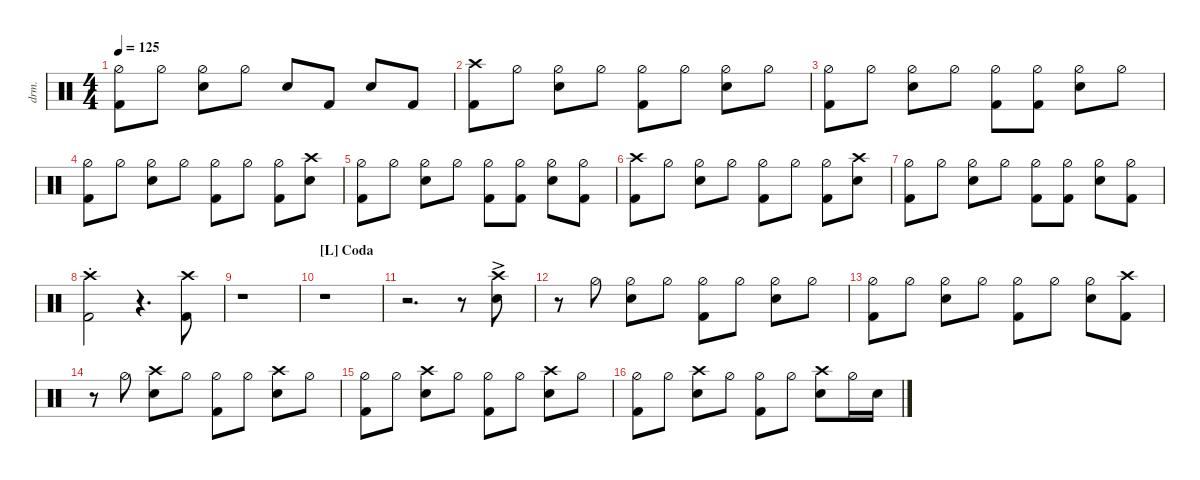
\defaultSystemsLayout 4
\hideDynamics
\bracketExtendMode nobrackets
\otherSystemsTrackNameOrientation horizontal
\track ("Drums" "drm.") {defaultSystemsLayout 4 multiBarRest instrument percussion}
\staff
\articulation defaults
\ts (4 4)
\tempo 125
\clef neutral
\ks c
("Hi-Hat (half)" "Kick (hit) 2").8{dy f} "Hi-Hat (half)".8 ("Hi-Hat (half)" "Snare (hit) 2").8 "Hi-Hat (half)".8 "Snare (hit) 2".8 "Kick (hit) 2".8 "Snare (hit) 2".8 "Kick (hit) 2".8 |
("Kick (hit) 2" "Crash high (hit)").8 "Hi-Hat (half)".8 ("Hi-Hat (half)" "Snare (hit) 2").8 "Hi-Hat (half)".8 ("Hi-Hat (half)" "Kick (hit) 2").8 "Hi-Hat (half)".8 ("Hi-Hat (half)" "Snare (hit) 2").8 "Hi-Hat (half)".8 |
("Hi-Hat (half)" "Kick (hit) 2").8 "Hi-Hat (half)".8 ("Hi-Hat (half)" "Snare (hit) 2").8 "Hi-Hat (half)".8 ("Hi-Hat (half)" "Kick (hit) 2").8 ("Hi-Hat (half)" "Kick (hit) 2").8 ("Hi-Hat (half)" "Snare (hit) 2").8 "Hi-Hat (half)".8 |
("Hi-Hat (half)" "Kick (hit) 2").8 "Hi-Hat (half)".8 ("Hi-Hat (half)" "Snare (hit) 2").8 "Hi-Hat (half)".8 ("Hi-Hat (half)" "Kick (hit) 2").8 "Hi-Hat (half)".8 ("Hi-Hat (half)" "Kick (hit) 2").8 ("Snare (hit) 2" "Crash high (hit)").8 |
("Hi-Hat (half)" "Kick (hit) 2").8 "Hi-Hat (half)".8 ("Hi-Hat (half)" "Snare (hit) 2").8 "Hi-Hat (half)".8 ("Hi-Hat (half)" "Kick (hit) 2").8 ("Hi-Hat (half)" "Kick (hit) 2").8 ("Hi-Hat (half)" "Snare (hit) 2").8 ("Hi-Hat (half)" "Kick (hit) 2").8 |
("Kick (hit) 2" "Crash high (hit)").8 "Hi-Hat (half)".8 ("Hi-Hat (half)" "Snare (hit) 2").8 "Hi-Hat (half)".8 ("Hi-Hat (half)" "Kick (hit) 2").8 "Hi-Hat (half)".8 ("Hi-Hat (half)" "Kick (hit) 2").8 ("Snare (hit) 2" "Crash high (hit)").8 |
("Hi-Hat (half)" "Kick (hit) 2").8 "Hi-Hat (half)".8 ("Hi-Hat (half)" "Snare (hit) 2").8 "Hi-Hat (half)".8 ("Hi-Hat (half)" "Kick (hit) 2").8 ("Hi-Hat (half)" "Kick (hit) 2").8 ("Hi-Hat (half)" "Snare (hit) 2").8 ("Hi-Hat (half)" "Kick (hit) 2").8 |
("Kick (hit) 2" "Crash high (hit)"{st}).2 r.4{d} ("Kick (hit) 2" "Crash high (hit)").8 |
r.1 |
\section ("L" "Coda")
r.1 |
r.2{d} r.8 ("Crash high (hit)"{ac} "Snare (hit) 2"{ac}).8 |
r.8 "Hi-Hat (half)".8 ("Hi-Hat (half)" "Snare (hit) 2").8 "Hi-Hat (half)".8 ("Hi-Hat (half)" "Kick (hit) 2").8 "Hi-Hat (half)".8 ("Hi-Hat (half)" "Snare (hit) 2").8 "Hi-Hat (half)".8 |
("Hi-Hat (half)" "Kick (hit) 2").8 "Hi-Hat (half)".8 ("Hi-Hat (half)" "Snare (hit) 2").8 "Hi-Hat (half)".8 ("Hi-Hat (half)" "Kick (hit) 2").8 "Hi-Hat (half)".8 ("Hi-Hat (half)" "Snare (hit) 2").8 ("Kick (hit) 2" "Crash high (hit)").8 |
r.8 "Hi-Hat (half)".8 ("Snare (hit) 2" "Crash high (hit)").8 "Hi-Hat (half)".8 ("Hi-Hat (half)" "Kick (hit) 2").8 "Hi-Hat (half)".8 ("Snare (hit) 2" "Crash high (hit)").8 "Hi-Hat (half)".8 |
("Kick (hit) 2" "Hi-Hat (half)").8 "Hi-Hat (half)".8 ("Snare (hit) 2" "Crash high (hit)").8 "Hi-Hat (half)".8 ("Hi-Hat (half)" "Kick (hit) 2").8 "Hi-Hat (half)".8 ("Snare (hit) 2" "Crash high (hit)").8 "Hi-Hat (half)".8 |
("Kick (hit) 2" "Hi-Hat (half)").8 "Hi-Hat (half)".8 ("Snare (hit) 2" "Crash high (hit)").8 "Hi-Hat (half)".8 ("Hi-Hat (half)" "Kick (hit) 2").8 "Hi-Hat (half)".8 ("Snare (hit) 2" "Crash high (hit)").8 "Hi-Hat (half)".16 "Snare (hit) 2".16
